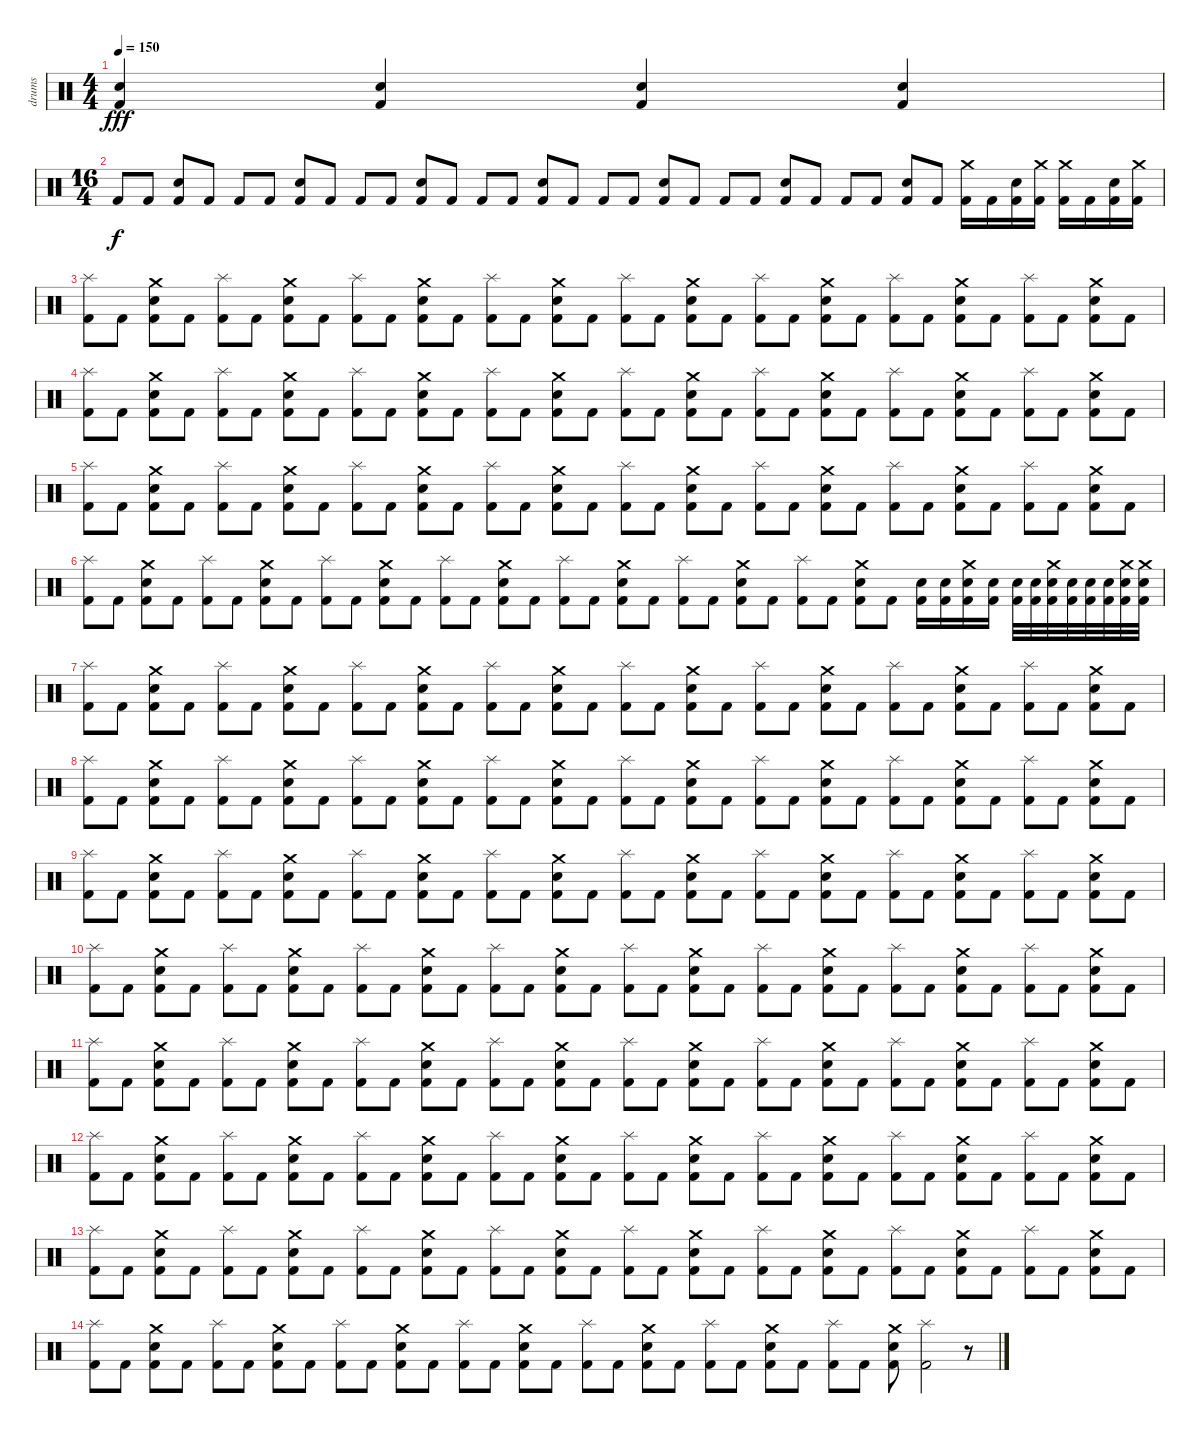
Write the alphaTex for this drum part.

\track ("drums" "drums") {instrument percussion}
\staff {score}
\articulation defaults
\ts (4 4)
\tempo 150
\clef neutral
\ks c
("Snare (hit) 2" "Kick (hit) 2").4{dy fff} ("Snare (hit) 2" "Kick (hit) 2").4 ("Snare (hit) 2" "Kick (hit) 2").4 ("Snare (hit) 2" "Kick (hit) 2").4 |
\ts (16 4)
"Kick (hit) 2".8{dy f} "Kick (hit) 2".8 ("Snare (hit) 2" "Kick (hit) 2").8 "Kick (hit) 2".8 "Kick (hit) 2".8 "Kick (hit) 2".8 ("Snare (hit) 2" "Kick (hit) 2").8 "Kick (hit) 2".8 "Kick (hit) 2".8 "Kick (hit) 2".8 ("Snare (hit) 2" "Kick (hit) 2").8 "Kick (hit) 2".8 "Kick (hit) 2".8 "Kick (hit) 2".8 ("Snare (hit) 2" "Kick (hit) 2").8 "Kick (hit) 2".8 "Kick (hit) 2".8 "Kick (hit) 2".8 ("Snare (hit) 2" "Kick (hit) 2").8 "Kick (hit) 2".8 "Kick (hit) 2".8 "Kick (hit) 2".8 ("Snare (hit) 2" "Kick (hit) 2").8 "Kick (hit) 2".8 "Kick (hit) 2".8 "Kick (hit) 2".8 ("Snare (hit) 2" "Kick (hit) 2").8 "Kick (hit) 2".8 ("Crash medium (hit)" "Kick (hit) 2").16 "Kick (hit) 2".16 ("Snare (hit) 2" "Kick (hit) 2").16 ("Crash medium (hit)" "Kick (hit) 2").16 ("Crash medium (hit)" "Kick (hit) 2").16 "Kick (hit) 2".16 ("Snare (hit) 2" "Kick (hit) 2").16 ("Crash medium (hit)" "Kick (hit) 2").16 |
("Splash (hit)" "Kick (hit) 2").8 "Kick (hit) 2".8 ("Crash medium (hit)" "Snare (hit) 2" "Kick (hit) 2").8 "Kick (hit) 2".8 ("Splash (hit)" "Kick (hit) 2").8 "Kick (hit) 2".8 ("Crash medium (hit)" "Snare (hit) 2" "Kick (hit) 2").8 "Kick (hit) 2".8 ("Splash (hit)" "Kick (hit) 2").8 "Kick (hit) 2".8 ("Crash medium (hit)" "Snare (hit) 2" "Kick (hit) 2").8 "Kick (hit) 2".8 ("Splash (hit)" "Kick (hit) 2").8 "Kick (hit) 2".8 ("Crash medium (hit)" "Snare (hit) 2" "Kick (hit) 2").8 "Kick (hit) 2".8 ("Splash (hit)" "Kick (hit) 2").8 "Kick (hit) 2".8 ("Crash medium (hit)" "Snare (hit) 2" "Kick (hit) 2").8 "Kick (hit) 2".8 ("Splash (hit)" "Kick (hit) 2").8 "Kick (hit) 2".8 ("Crash medium (hit)" "Snare (hit) 2" "Kick (hit) 2").8 "Kick (hit) 2".8 ("Splash (hit)" "Kick (hit) 2").8 "Kick (hit) 2".8 ("Crash medium (hit)" "Snare (hit) 2" "Kick (hit) 2").8 "Kick (hit) 2".8 ("Splash (hit)" "Kick (hit) 2").8 "Kick (hit) 2".8 ("Crash medium (hit)" "Snare (hit) 2" "Kick (hit) 2").8 "Kick (hit) 2".8 |
("Splash (hit)" "Kick (hit) 2").8 "Kick (hit) 2".8 ("Crash medium (hit)" "Snare (hit) 2" "Kick (hit) 2").8 "Kick (hit) 2".8 ("Splash (hit)" "Kick (hit) 2").8 "Kick (hit) 2".8 ("Crash medium (hit)" "Snare (hit) 2" "Kick (hit) 2").8 "Kick (hit) 2".8 ("Splash (hit)" "Kick (hit) 2").8 "Kick (hit) 2".8 ("Crash medium (hit)" "Snare (hit) 2" "Kick (hit) 2").8 "Kick (hit) 2".8 ("Splash (hit)" "Kick (hit) 2").8 "Kick (hit) 2".8 ("Crash medium (hit)" "Snare (hit) 2" "Kick (hit) 2").8 "Kick (hit) 2".8 ("Splash (hit)" "Kick (hit) 2").8 "Kick (hit) 2".8 ("Crash medium (hit)" "Snare (hit) 2" "Kick (hit) 2").8 "Kick (hit) 2".8 ("Splash (hit)" "Kick (hit) 2").8 "Kick (hit) 2".8 ("Crash medium (hit)" "Snare (hit) 2" "Kick (hit) 2").8 "Kick (hit) 2".8 ("Splash (hit)" "Kick (hit) 2").8 "Kick (hit) 2".8 ("Crash medium (hit)" "Snare (hit) 2" "Kick (hit) 2").8 "Kick (hit) 2".8 ("Splash (hit)" "Kick (hit) 2").8 "Kick (hit) 2".8 ("Crash medium (hit)" "Snare (hit) 2" "Kick (hit) 2").8 "Kick (hit) 2".8 |
("Splash (hit)" "Kick (hit) 2").8 "Kick (hit) 2".8 ("Crash medium (hit)" "Snare (hit) 2" "Kick (hit) 2").8 "Kick (hit) 2".8 ("Splash (hit)" "Kick (hit) 2").8 "Kick (hit) 2".8 ("Crash medium (hit)" "Snare (hit) 2" "Kick (hit) 2").8 "Kick (hit) 2".8 ("Splash (hit)" "Kick (hit) 2").8 "Kick (hit) 2".8 ("Crash medium (hit)" "Snare (hit) 2" "Kick (hit) 2").8 "Kick (hit) 2".8 ("Splash (hit)" "Kick (hit) 2").8 "Kick (hit) 2".8 ("Crash medium (hit)" "Snare (hit) 2" "Kick (hit) 2").8 "Kick (hit) 2".8 ("Splash (hit)" "Kick (hit) 2").8 "Kick (hit) 2".8 ("Crash medium (hit)" "Snare (hit) 2" "Kick (hit) 2").8 "Kick (hit) 2".8 ("Splash (hit)" "Kick (hit) 2").8 "Kick (hit) 2".8 ("Crash medium (hit)" "Snare (hit) 2" "Kick (hit) 2").8 "Kick (hit) 2".8 ("Splash (hit)" "Kick (hit) 2").8 "Kick (hit) 2".8 ("Crash medium (hit)" "Snare (hit) 2" "Kick (hit) 2").8 "Kick (hit) 2".8 ("Splash (hit)" "Kick (hit) 2").8 "Kick (hit) 2".8 ("Crash medium (hit)" "Snare (hit) 2" "Kick (hit) 2").8 "Kick (hit) 2".8 |
("Splash (hit)" "Kick (hit) 2").8 "Kick (hit) 2".8 ("Crash medium (hit)" "Snare (hit) 2" "Kick (hit) 2").8 "Kick (hit) 2".8 ("Splash (hit)" "Kick (hit) 2").8 "Kick (hit) 2".8 ("Crash medium (hit)" "Snare (hit) 2" "Kick (hit) 2").8 "Kick (hit) 2".8 ("Splash (hit)" "Kick (hit) 2").8 "Kick (hit) 2".8 ("Crash medium (hit)" "Snare (hit) 2" "Kick (hit) 2").8 "Kick (hit) 2".8 ("Splash (hit)" "Kick (hit) 2").8 "Kick (hit) 2".8 ("Crash medium (hit)" "Snare (hit) 2" "Kick (hit) 2").8 "Kick (hit) 2".8 ("Splash (hit)" "Kick (hit) 2").8 "Kick (hit) 2".8 ("Crash medium (hit)" "Snare (hit) 2" "Kick (hit) 2").8 "Kick (hit) 2".8 ("Splash (hit)" "Kick (hit) 2").8 "Kick (hit) 2".8 ("Crash medium (hit)" "Snare (hit) 2" "Kick (hit) 2").8 "Kick (hit) 2".8 ("Splash (hit)" "Kick (hit) 2").8 "Kick (hit) 2".8 ("Crash medium (hit)" "Snare (hit) 2" "Kick (hit) 2").8 "Kick (hit) 2".8 ("Snare (hit) 2" "Kick (hit) 2").16 ("Kick (hit) 2" "Snare (hit) 2").16 ("Crash medium (hit)" "Snare (hit) 2" "Kick (hit) 2").16 ("Snare (hit) 2" "Kick (hit) 2").16 ("Snare (hit) 2" "Kick (hit) 2").32 ("Snare (hit) 2" "Kick (hit) 2").32 ("Crash medium (hit)" "Snare (hit) 2" "Kick (hit) 2").32 ("Snare (hit) 2" "Kick (hit) 2").32 ("Snare (hit) 2" "Kick (hit) 2").32 ("Snare (hit) 2" "Kick (hit) 2").32 ("Crash medium (hit)" "Snare (hit) 2" "Kick (hit) 2").32 ("Crash medium (hit)" "Snare (hit) 2" "Kick (hit) 2").32 |
("Splash (hit)" "Kick (hit) 2").8 "Kick (hit) 2".8 ("Crash medium (hit)" "Snare (hit) 2" "Kick (hit) 2").8 "Kick (hit) 2".8 ("Splash (hit)" "Kick (hit) 2").8 "Kick (hit) 2".8 ("Crash medium (hit)" "Snare (hit) 2" "Kick (hit) 2").8 "Kick (hit) 2".8 ("Splash (hit)" "Kick (hit) 2").8 "Kick (hit) 2".8 ("Crash medium (hit)" "Snare (hit) 2" "Kick (hit) 2").8 "Kick (hit) 2".8 ("Splash (hit)" "Kick (hit) 2").8 "Kick (hit) 2".8 ("Crash medium (hit)" "Snare (hit) 2" "Kick (hit) 2").8 "Kick (hit) 2".8 ("Splash (hit)" "Kick (hit) 2").8 "Kick (hit) 2".8 ("Crash medium (hit)" "Snare (hit) 2" "Kick (hit) 2").8 "Kick (hit) 2".8 ("Splash (hit)" "Kick (hit) 2").8 "Kick (hit) 2".8 ("Crash medium (hit)" "Snare (hit) 2" "Kick (hit) 2").8 "Kick (hit) 2".8 ("Splash (hit)" "Kick (hit) 2").8 "Kick (hit) 2".8 ("Crash medium (hit)" "Snare (hit) 2" "Kick (hit) 2").8 "Kick (hit) 2".8 ("Splash (hit)" "Kick (hit) 2").8 "Kick (hit) 2".8 ("Crash medium (hit)" "Snare (hit) 2" "Kick (hit) 2").8 "Kick (hit) 2".8 |
("Splash (hit)" "Kick (hit) 2").8 "Kick (hit) 2".8 ("Crash medium (hit)" "Snare (hit) 2" "Kick (hit) 2").8 "Kick (hit) 2".8 ("Splash (hit)" "Kick (hit) 2").8 "Kick (hit) 2".8 ("Crash medium (hit)" "Snare (hit) 2" "Kick (hit) 2").8 "Kick (hit) 2".8 ("Splash (hit)" "Kick (hit) 2").8 "Kick (hit) 2".8 ("Crash medium (hit)" "Snare (hit) 2" "Kick (hit) 2").8 "Kick (hit) 2".8 ("Splash (hit)" "Kick (hit) 2").8 "Kick (hit) 2".8 ("Crash medium (hit)" "Snare (hit) 2" "Kick (hit) 2").8 "Kick (hit) 2".8 ("Splash (hit)" "Kick (hit) 2").8 "Kick (hit) 2".8 ("Crash medium (hit)" "Snare (hit) 2" "Kick (hit) 2").8 "Kick (hit) 2".8 ("Splash (hit)" "Kick (hit) 2").8 "Kick (hit) 2".8 ("Crash medium (hit)" "Snare (hit) 2" "Kick (hit) 2").8 "Kick (hit) 2".8 ("Splash (hit)" "Kick (hit) 2").8 "Kick (hit) 2".8 ("Crash medium (hit)" "Snare (hit) 2" "Kick (hit) 2").8 "Kick (hit) 2".8 ("Splash (hit)" "Kick (hit) 2").8 "Kick (hit) 2".8 ("Crash medium (hit)" "Snare (hit) 2" "Kick (hit) 2").8 "Kick (hit) 2".8 |
("Splash (hit)" "Kick (hit) 2").8 "Kick (hit) 2".8 ("Crash medium (hit)" "Snare (hit) 2" "Kick (hit) 2").8 "Kick (hit) 2".8 ("Splash (hit)" "Kick (hit) 2").8 "Kick (hit) 2".8 ("Crash medium (hit)" "Snare (hit) 2" "Kick (hit) 2").8 "Kick (hit) 2".8 ("Splash (hit)" "Kick (hit) 2").8 "Kick (hit) 2".8 ("Crash medium (hit)" "Snare (hit) 2" "Kick (hit) 2").8 "Kick (hit) 2".8 ("Splash (hit)" "Kick (hit) 2").8 "Kick (hit) 2".8 ("Crash medium (hit)" "Snare (hit) 2" "Kick (hit) 2").8 "Kick (hit) 2".8 ("Splash (hit)" "Kick (hit) 2").8 "Kick (hit) 2".8 ("Crash medium (hit)" "Snare (hit) 2" "Kick (hit) 2").8 "Kick (hit) 2".8 ("Splash (hit)" "Kick (hit) 2").8 "Kick (hit) 2".8 ("Crash medium (hit)" "Snare (hit) 2" "Kick (hit) 2").8 "Kick (hit) 2".8 ("Splash (hit)" "Kick (hit) 2").8 "Kick (hit) 2".8 ("Crash medium (hit)" "Snare (hit) 2" "Kick (hit) 2").8 "Kick (hit) 2".8 ("Splash (hit)" "Kick (hit) 2").8 "Kick (hit) 2".8 ("Crash medium (hit)" "Snare (hit) 2" "Kick (hit) 2").8 "Kick (hit) 2".8 |
("Splash (hit)" "Kick (hit) 2").8 "Kick (hit) 2".8 ("Crash medium (hit)" "Snare (hit) 2" "Kick (hit) 2").8 "Kick (hit) 2".8 ("Splash (hit)" "Kick (hit) 2").8 "Kick (hit) 2".8 ("Crash medium (hit)" "Snare (hit) 2" "Kick (hit) 2").8 "Kick (hit) 2".8 ("Splash (hit)" "Kick (hit) 2").8 "Kick (hit) 2".8 ("Crash medium (hit)" "Snare (hit) 2" "Kick (hit) 2").8 "Kick (hit) 2".8 ("Splash (hit)" "Kick (hit) 2").8 "Kick (hit) 2".8 ("Crash medium (hit)" "Snare (hit) 2" "Kick (hit) 2").8 "Kick (hit) 2".8 ("Splash (hit)" "Kick (hit) 2").8 "Kick (hit) 2".8 ("Crash medium (hit)" "Snare (hit) 2" "Kick (hit) 2").8 "Kick (hit) 2".8 ("Splash (hit)" "Kick (hit) 2").8 "Kick (hit) 2".8 ("Crash medium (hit)" "Snare (hit) 2" "Kick (hit) 2").8 "Kick (hit) 2".8 ("Splash (hit)" "Kick (hit) 2").8 "Kick (hit) 2".8 ("Crash medium (hit)" "Snare (hit) 2" "Kick (hit) 2").8 "Kick (hit) 2".8 ("Splash (hit)" "Kick (hit) 2").8 "Kick (hit) 2".8 ("Crash medium (hit)" "Snare (hit) 2" "Kick (hit) 2").8 "Kick (hit) 2".8 |
("Splash (hit)" "Kick (hit) 2").8 "Kick (hit) 2".8 ("Crash medium (hit)" "Snare (hit) 2" "Kick (hit) 2").8 "Kick (hit) 2".8 ("Splash (hit)" "Kick (hit) 2").8 "Kick (hit) 2".8 ("Crash medium (hit)" "Snare (hit) 2" "Kick (hit) 2").8 "Kick (hit) 2".8 ("Splash (hit)" "Kick (hit) 2").8 "Kick (hit) 2".8 ("Crash medium (hit)" "Snare (hit) 2" "Kick (hit) 2").8 "Kick (hit) 2".8 ("Splash (hit)" "Kick (hit) 2").8 "Kick (hit) 2".8 ("Crash medium (hit)" "Snare (hit) 2" "Kick (hit) 2").8 "Kick (hit) 2".8 ("Splash (hit)" "Kick (hit) 2").8 "Kick (hit) 2".8 ("Crash medium (hit)" "Snare (hit) 2" "Kick (hit) 2").8 "Kick (hit) 2".8 ("Splash (hit)" "Kick (hit) 2").8 "Kick (hit) 2".8 ("Crash medium (hit)" "Snare (hit) 2" "Kick (hit) 2").8 "Kick (hit) 2".8 ("Splash (hit)" "Kick (hit) 2").8 "Kick (hit) 2".8 ("Crash medium (hit)" "Snare (hit) 2" "Kick (hit) 2").8 "Kick (hit) 2".8 ("Splash (hit)" "Kick (hit) 2").8 "Kick (hit) 2".8 ("Crash medium (hit)" "Snare (hit) 2" "Kick (hit) 2").8 "Kick (hit) 2".8 |
("Splash (hit)" "Kick (hit) 2").8 "Kick (hit) 2".8 ("Crash medium (hit)" "Snare (hit) 2" "Kick (hit) 2").8 "Kick (hit) 2".8 ("Splash (hit)" "Kick (hit) 2").8 "Kick (hit) 2".8 ("Crash medium (hit)" "Snare (hit) 2" "Kick (hit) 2").8 "Kick (hit) 2".8 ("Splash (hit)" "Kick (hit) 2").8 "Kick (hit) 2".8 ("Crash medium (hit)" "Snare (hit) 2" "Kick (hit) 2").8 "Kick (hit) 2".8 ("Splash (hit)" "Kick (hit) 2").8 "Kick (hit) 2".8 ("Crash medium (hit)" "Snare (hit) 2" "Kick (hit) 2").8 "Kick (hit) 2".8 ("Splash (hit)" "Kick (hit) 2").8 "Kick (hit) 2".8 ("Crash medium (hit)" "Snare (hit) 2" "Kick (hit) 2").8 "Kick (hit) 2".8 ("Splash (hit)" "Kick (hit) 2").8 "Kick (hit) 2".8 ("Crash medium (hit)" "Snare (hit) 2" "Kick (hit) 2").8 "Kick (hit) 2".8 ("Splash (hit)" "Kick (hit) 2").8 "Kick (hit) 2".8 ("Crash medium (hit)" "Snare (hit) 2" "Kick (hit) 2").8 "Kick (hit) 2".8 ("Splash (hit)" "Kick (hit) 2").8 "Kick (hit) 2".8 ("Crash medium (hit)" "Snare (hit) 2" "Kick (hit) 2").8 "Kick (hit) 2".8 |
("Splash (hit)" "Kick (hit) 2").8 "Kick (hit) 2".8 ("Crash medium (hit)" "Snare (hit) 2" "Kick (hit) 2").8 "Kick (hit) 2".8 ("Splash (hit)" "Kick (hit) 2").8 "Kick (hit) 2".8 ("Crash medium (hit)" "Snare (hit) 2" "Kick (hit) 2").8 "Kick (hit) 2".8 ("Splash (hit)" "Kick (hit) 2").8 "Kick (hit) 2".8 ("Crash medium (hit)" "Snare (hit) 2" "Kick (hit) 2").8 "Kick (hit) 2".8 ("Splash (hit)" "Kick (hit) 2").8 "Kick (hit) 2".8 ("Crash medium (hit)" "Snare (hit) 2" "Kick (hit) 2").8 "Kick (hit) 2".8 ("Splash (hit)" "Kick (hit) 2").8 "Kick (hit) 2".8 ("Crash medium (hit)" "Snare (hit) 2" "Kick (hit) 2").8 "Kick (hit) 2".8 ("Splash (hit)" "Kick (hit) 2").8 "Kick (hit) 2".8 ("Crash medium (hit)" "Snare (hit) 2" "Kick (hit) 2").8 "Kick (hit) 2".8 ("Splash (hit)" "Kick (hit) 2").8 "Kick (hit) 2".8 ("Crash medium (hit)" "Snare (hit) 2" "Kick (hit) 2").8 "Kick (hit) 2".8 ("Splash (hit)" "Kick (hit) 2").8 "Kick (hit) 2".8 ("Crash medium (hit)" "Snare (hit) 2" "Kick (hit) 2").8 "Kick (hit) 2".8 |
("Splash (hit)" "Kick (hit) 2").8 "Kick (hit) 2".8 ("Crash medium (hit)" "Snare (hit) 2" "Kick (hit) 2").8 "Kick (hit) 2".8 ("Splash (hit)" "Kick (hit) 2").8 "Kick (hit) 2".8 ("Crash medium (hit)" "Snare (hit) 2" "Kick (hit) 2").8 "Kick (hit) 2".8 ("Splash (hit)" "Kick (hit) 2").8 "Kick (hit) 2".8 ("Crash medium (hit)" "Snare (hit) 2" "Kick (hit) 2").8 "Kick (hit) 2".8 ("Splash (hit)" "Kick (hit) 2").8 "Kick (hit) 2".8 ("Crash medium (hit)" "Snare (hit) 2" "Kick (hit) 2").8 "Kick (hit) 2".8 ("Splash (hit)" "Kick (hit) 2").8 "Kick (hit) 2".8 ("Crash medium (hit)" "Snare (hit) 2" "Kick (hit) 2").8 "Kick (hit) 2".8 ("Splash (hit)" "Kick (hit) 2").8 "Kick (hit) 2".8 ("Crash medium (hit)" "Snare (hit) 2" "Kick (hit) 2").8 "Kick (hit) 2".8 ("Splash (hit)" "Kick (hit) 2").8 "Kick (hit) 2".8 ("Crash medium (hit)" "Snare (hit) 2" "Kick (hit) 2").8 ("Splash (hit)" "Kick (hit) 2").2 r.8
